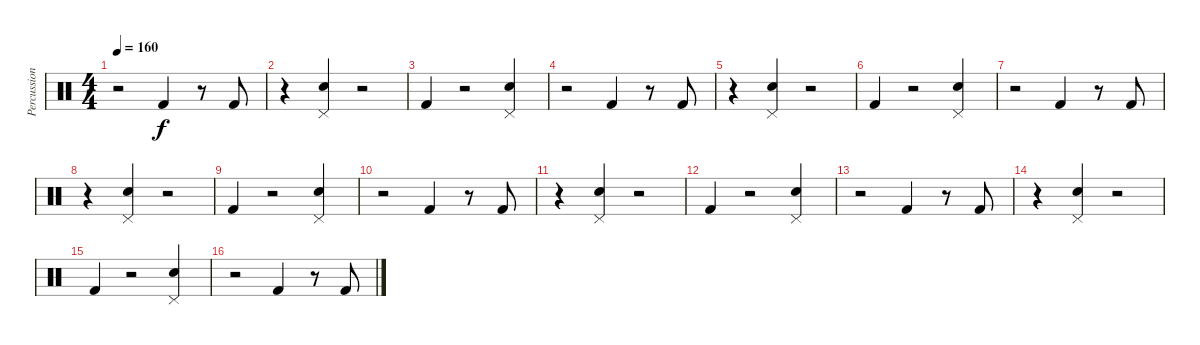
\track ("Percussions" "Percussion") {instrument percussion}
\staff {score}
\articulation defaults
\ts (4 4)
\tempo 160
\clef neutral
\ks c
r.2{dy f} "Kick (hit) 2".4 r.8 "Kick (hit) 2".8 |
r.4 ("Pedal Hi-Hat (hit)" "Electric Snare (hit)").4 r.2 |
"Kick (hit) 2".4 r.2 ("Pedal Hi-Hat (hit)" "Electric Snare (hit)").4 |
r.2 "Kick (hit) 2".4 r.8 "Kick (hit) 2".8 |
r.4 ("Pedal Hi-Hat (hit)" "Electric Snare (hit)").4 r.2 |
"Kick (hit) 2".4 r.2 ("Pedal Hi-Hat (hit)" "Electric Snare (hit)").4 |
r.2 "Kick (hit) 2".4 r.8 "Kick (hit) 2".8 |
r.4 ("Pedal Hi-Hat (hit)" "Electric Snare (hit)").4 r.2 |
"Kick (hit) 2".4 r.2 ("Pedal Hi-Hat (hit)" "Electric Snare (hit)").4 |
r.2 "Kick (hit) 2".4 r.8 "Kick (hit) 2".8 |
r.4 ("Pedal Hi-Hat (hit)" "Electric Snare (hit)").4 r.2 |
"Kick (hit) 2".4 r.2 ("Pedal Hi-Hat (hit)" "Electric Snare (hit)").4 |
r.2 "Kick (hit) 2".4 r.8 "Kick (hit) 2".8 |
r.4 ("Pedal Hi-Hat (hit)" "Electric Snare (hit)").4 r.2 |
"Kick (hit) 2".4 r.2 ("Pedal Hi-Hat (hit)" "Electric Snare (hit)").4 |
r.2 "Kick (hit) 2".4 r.8 "Kick (hit) 2".8
